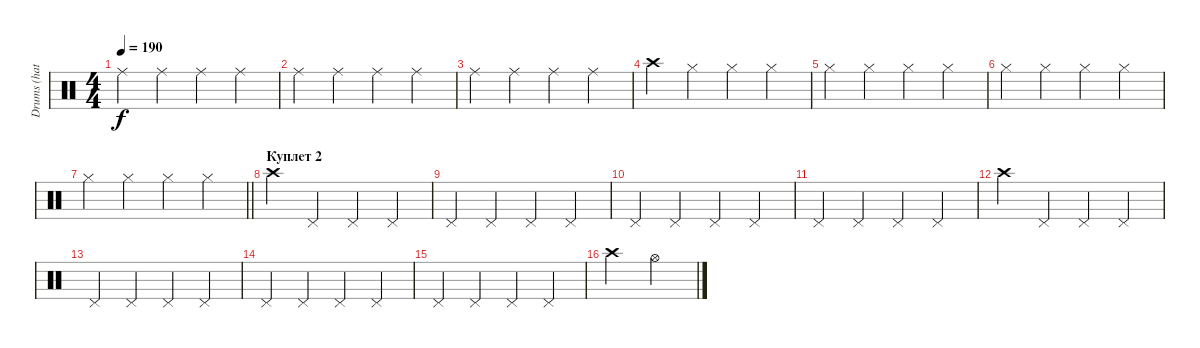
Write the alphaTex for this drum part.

\track ("Drums (hats)" "Drums (hat") {instrument percussion}
\staff {score}
\articulation defaults
\ts (4 4)
\tempo 190
\clef neutral
\ks c "Ride (middle)".4{dy f} "Ride (middle)".4 "Ride (middle)".4 "Ride (middle)".4
|
"Ride (middle)".4 "Ride (middle)".4 "Ride (middle)".4 "Ride (middle)".4 |
"Ride (middle)".4 "Ride (middle)".4 "Ride (middle)".4 "Ride (middle)".4 |
"Crash high (hit)".4 "Hi-Hat (closed)".4 "Hi-Hat (closed)".4 "Hi-Hat (closed)".4 |
"Hi-Hat (closed)".4 "Hi-Hat (closed)".4 "Hi-Hat (closed)".4 "Hi-Hat (closed)".4 |
"Hi-Hat (closed)".4 "Hi-Hat (closed)".4 "Hi-Hat (closed)".4 "Hi-Hat (closed)".4 |
\barLineRight lightlight "Hi-Hat (closed)".4 "Hi-Hat (closed)".4 "Hi-Hat (closed)".4 "Hi-Hat (closed)".4
|
\section ("" "Куплет 2")
"Crash high (hit)".4 "Pedal Hi-Hat (hit)".4 "Pedal Hi-Hat (hit)".4 "Pedal Hi-Hat (hit)".4 |
"Pedal Hi-Hat (hit)".4 "Pedal Hi-Hat (hit)".4 "Pedal Hi-Hat (hit)".4 "Pedal Hi-Hat (hit)".4 |
"Pedal Hi-Hat (hit)".4 "Pedal Hi-Hat (hit)".4 "Pedal Hi-Hat (hit)".4 "Pedal Hi-Hat (hit)".4 |
"Pedal Hi-Hat (hit)".4 "Pedal Hi-Hat (hit)".4 "Pedal Hi-Hat (hit)".4 "Pedal Hi-Hat (hit)".4 |
"Crash high (hit)".4 "Pedal Hi-Hat (hit)".4 "Pedal Hi-Hat (hit)".4 "Pedal Hi-Hat (hit)".4 |
"Pedal Hi-Hat (hit)".4 "Pedal Hi-Hat (hit)".4 "Pedal Hi-Hat (hit)".4 "Pedal Hi-Hat (hit)".4 |
"Pedal Hi-Hat (hit)".4 "Pedal Hi-Hat (hit)".4 "Pedal Hi-Hat (hit)".4 "Pedal Hi-Hat (hit)".4 |
"Pedal Hi-Hat (hit)".4 "Pedal Hi-Hat (hit)".4 "Pedal Hi-Hat (hit)".4 "Pedal Hi-Hat (hit)".4 |
"Crash high (hit)".2 "Hi-Hat (open)".2
